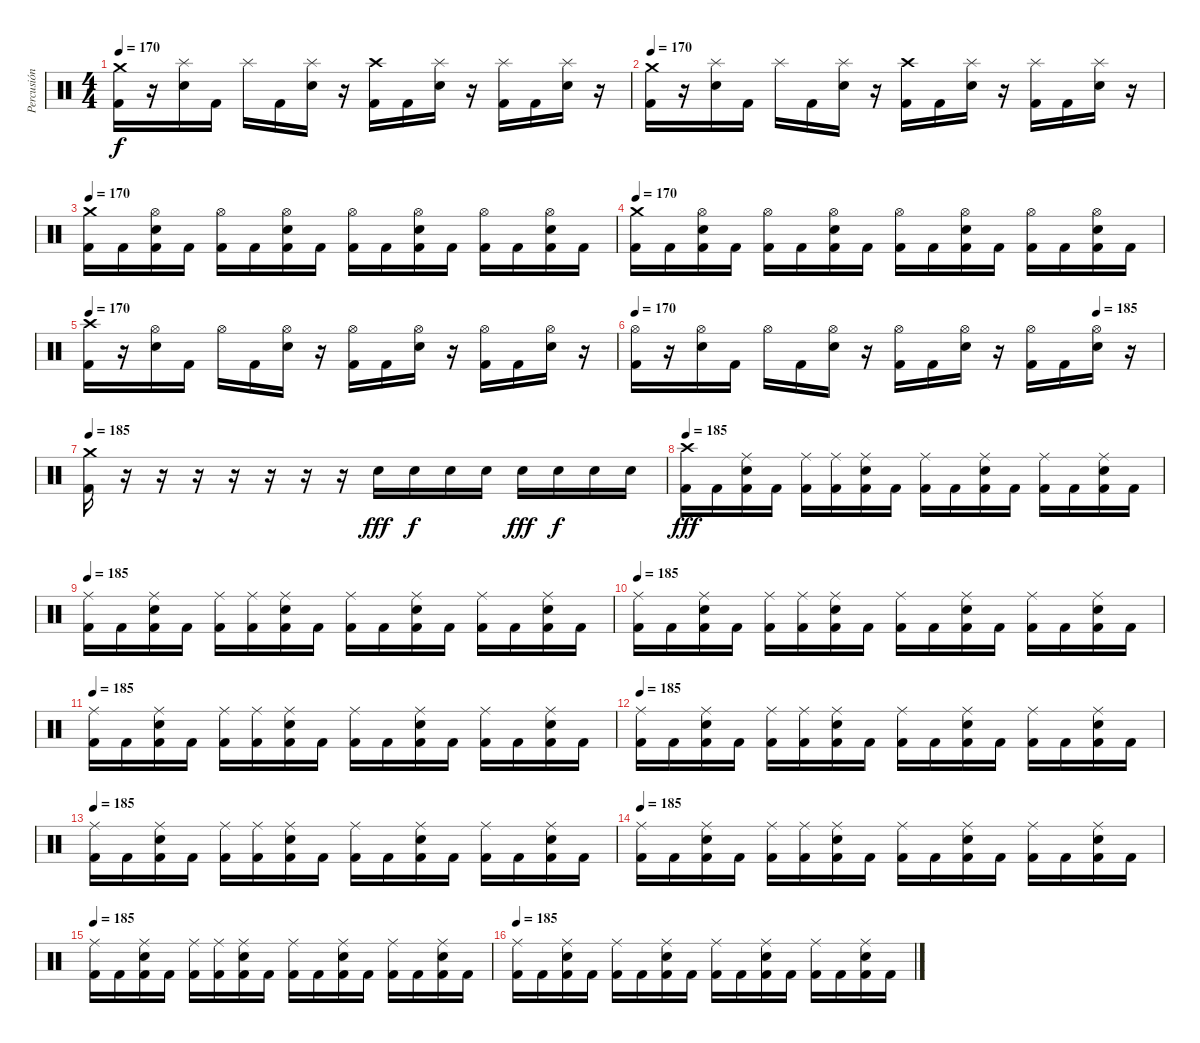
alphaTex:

\track ("Percusión" "Percusión") {instrument percussion}
\staff {score}
\articulation defaults
\ts (4 4)
\tempo 170
\clef neutral
\ks c
("Crash medium (hit)" "Kick (hit) 2").16{dy f} r.16 ("Splash (hit)" "Snare (hit) 2").16 "Kick (hit) 2".16 "Splash (hit)".16 "Kick (hit) 2".16 ("Splash (hit)" "Snare (hit) 2").16 r.16 ("Crash high (hit)" "Kick (hit) 2").16 "Kick (hit) 2".16 ("Splash (hit)" "Snare (hit) 2").16 r.16 ("Splash (hit)" "Kick (hit) 2").16 "Kick (hit) 2".16 ("Splash (hit)" "Snare (hit) 2").16 r.16 |
\tempo 170
("Crash medium (hit)" "Kick (hit) 2").16 r.16 ("Splash (hit)" "Snare (hit) 2").16 "Kick (hit) 2".16 "Splash (hit)".16 "Kick (hit) 2".16 ("Splash (hit)" "Snare (hit) 2").16 r.16 ("Crash high (hit)" "Kick (hit) 2").16 "Kick (hit) 2".16 ("Splash (hit)" "Snare (hit) 2").16 r.16 ("Splash (hit)" "Kick (hit) 2").16 "Kick (hit) 2".16 ("Splash (hit)" "Snare (hit) 2").16 r.16 |
\tempo 170
("Crash medium (hit)" "Kick (hit) 2").16 "Kick (hit) 2".16 ("Hi-Hat (open)" "Snare (hit) 2" "Kick (hit) 2").16 "Kick (hit) 2".16 ("Hi-Hat (open)" "Kick (hit) 2").16 "Kick (hit) 2".16 ("Hi-Hat (open)" "Snare (hit) 2" "Kick (hit) 2").16 "Kick (hit) 2".16 ("Hi-Hat (open)" "Kick (hit) 2").16 "Kick (hit) 2".16 ("Hi-Hat (open)" "Snare (hit) 2" "Kick (hit) 2").16 "Kick (hit) 2".16 ("Hi-Hat (open)" "Kick (hit) 2").16 "Kick (hit) 2".16 ("Hi-Hat (open)" "Snare (hit) 2" "Kick (hit) 2").16 "Kick (hit) 2".16 |
\tempo 170
("Crash medium (hit)" "Kick (hit) 2").16 "Kick (hit) 2".16 ("Hi-Hat (open)" "Snare (hit) 2" "Kick (hit) 2").16 "Kick (hit) 2".16 ("Hi-Hat (open)" "Kick (hit) 2").16 "Kick (hit) 2".16 ("Hi-Hat (open)" "Snare (hit) 2" "Kick (hit) 2").16 "Kick (hit) 2".16 ("Hi-Hat (open)" "Kick (hit) 2").16 "Kick (hit) 2".16 ("Hi-Hat (open)" "Snare (hit) 2" "Kick (hit) 2").16 "Kick (hit) 2".16 ("Hi-Hat (open)" "Kick (hit) 2").16 "Kick (hit) 2".16 ("Hi-Hat (open)" "Snare (hit) 2" "Kick (hit) 2").16 "Kick (hit) 2".16 |
\tempo 170
("Crash high (hit)" "Kick (hit) 2").16 r.16 ("Hi-Hat (open)" "Snare (hit) 2").16 "Kick (hit) 2".16 "Hi-Hat (open)".16 "Kick (hit) 2".16 ("Hi-Hat (open)" "Snare (hit) 2").16 r.16 ("Hi-Hat (open)" "Kick (hit) 2").16 "Kick (hit) 2".16 ("Hi-Hat (open)" "Snare (hit) 2").16 r.16 ("Hi-Hat (open)" "Kick (hit) 2").16 "Kick (hit) 2".16 ("Hi-Hat (open)" "Snare (hit) 2").16 r.16 |
\tempo 170
\tempo (185 0.875)
("Hi-Hat (open)" "Kick (hit) 2").16 r.16 ("Hi-Hat (open)" "Snare (hit) 2").16 "Kick (hit) 2".16 "Hi-Hat (open)".16 "Kick (hit) 2".16 ("Hi-Hat (open)" "Snare (hit) 2").16 r.16 ("Hi-Hat (open)" "Kick (hit) 2").16 "Kick (hit) 2".16 ("Hi-Hat (open)" "Snare (hit) 2").16 r.16 ("Hi-Hat (open)" "Kick (hit) 2").16 "Kick (hit) 2".16 ("Hi-Hat (open)" "Snare (hit) 2").16 r.16 |
\section ("" "")
\tempo 185
("Crash medium (hit)" "Kick (hit) 2").16 r.16 r.16 r.16 r.16 r.16 r.16 r.16 "Snare (hit) 2".16{dy fff} "Snare (hit) 2".16{dy f} "Snare (hit) 2".16 "Snare (hit) 2".16 "Snare (hit) 2".16{dy fff} "Snare (hit) 2".16{dy f} "Snare (hit) 2".16 "Snare (hit) 2".16 |
\section ("" "")
\tempo 185
("Crash high (hit)" "Kick (hit) 2").16{dy fff} "Kick (hit) 2".16 ("Ride (middle)" "Snare (hit) 2" "Kick (hit) 2").16 "Kick (hit) 2".16 ("Ride (middle)" "Kick (hit) 2").16 ("Ride (middle)" "Kick (hit) 2").16 ("Ride (middle)" "Snare (hit) 2" "Kick (hit) 2").16 "Kick (hit) 2".16 ("Ride (middle)" "Kick (hit) 2").16 "Kick (hit) 2".16 ("Ride (middle)" "Snare (hit) 2" "Kick (hit) 2").16 "Kick (hit) 2".16 ("Ride (middle)" "Kick (hit) 2").16 "Kick (hit) 2".16 ("Ride (middle)" "Snare (hit) 2" "Kick (hit) 2").16 "Kick (hit) 2".16 |
\tempo 185
("Ride (middle)" "Kick (hit) 2").16 "Kick (hit) 2".16 ("Ride (middle)" "Snare (hit) 2" "Kick (hit) 2").16 "Kick (hit) 2".16 ("Ride (middle)" "Kick (hit) 2").16 ("Ride (middle)" "Kick (hit) 2").16 ("Ride (middle)" "Snare (hit) 2" "Kick (hit) 2").16 "Kick (hit) 2".16 ("Ride (middle)" "Kick (hit) 2").16 "Kick (hit) 2".16 ("Ride (middle)" "Snare (hit) 2" "Kick (hit) 2").16 "Kick (hit) 2".16 ("Ride (middle)" "Kick (hit) 2").16 "Kick (hit) 2".16 ("Ride (middle)" "Snare (hit) 2" "Kick (hit) 2").16 "Kick (hit) 2".16 |
\tempo 185
("Ride (middle)" "Kick (hit) 2").16 "Kick (hit) 2".16 ("Ride (middle)" "Snare (hit) 2" "Kick (hit) 2").16 "Kick (hit) 2".16 ("Ride (middle)" "Kick (hit) 2").16 ("Ride (middle)" "Kick (hit) 2").16 ("Ride (middle)" "Snare (hit) 2" "Kick (hit) 2").16 "Kick (hit) 2".16 ("Ride (middle)" "Kick (hit) 2").16 "Kick (hit) 2".16 ("Ride (middle)" "Snare (hit) 2" "Kick (hit) 2").16 "Kick (hit) 2".16 ("Ride (middle)" "Kick (hit) 2").16 "Kick (hit) 2".16 ("Ride (middle)" "Snare (hit) 2" "Kick (hit) 2").16 "Kick (hit) 2".16 |
\tempo 185
("Ride (middle)" "Kick (hit) 2").16 "Kick (hit) 2".16 ("Ride (middle)" "Snare (hit) 2" "Kick (hit) 2").16 "Kick (hit) 2".16 ("Ride (middle)" "Kick (hit) 2").16 ("Ride (middle)" "Kick (hit) 2").16 ("Ride (middle)" "Snare (hit) 2" "Kick (hit) 2").16 "Kick (hit) 2".16 ("Ride (middle)" "Kick (hit) 2").16 "Kick (hit) 2".16 ("Ride (middle)" "Snare (hit) 2" "Kick (hit) 2").16 "Kick (hit) 2".16 ("Ride (middle)" "Kick (hit) 2").16 "Kick (hit) 2".16 ("Ride (middle)" "Snare (hit) 2" "Kick (hit) 2").16 "Kick (hit) 2".16 |
\tempo 185
("Ride (middle)" "Kick (hit) 2").16 "Kick (hit) 2".16 ("Ride (middle)" "Snare (hit) 2" "Kick (hit) 2").16 "Kick (hit) 2".16 ("Ride (middle)" "Kick (hit) 2").16 ("Ride (middle)" "Kick (hit) 2").16 ("Ride (middle)" "Snare (hit) 2" "Kick (hit) 2").16 "Kick (hit) 2".16 ("Ride (middle)" "Kick (hit) 2").16 "Kick (hit) 2".16 ("Ride (middle)" "Snare (hit) 2" "Kick (hit) 2").16 "Kick (hit) 2".16 ("Ride (middle)" "Kick (hit) 2").16 "Kick (hit) 2".16 ("Ride (middle)" "Snare (hit) 2" "Kick (hit) 2").16 "Kick (hit) 2".16 |
\tempo 185
("Ride (middle)" "Kick (hit) 2").16 "Kick (hit) 2".16 ("Ride (middle)" "Snare (hit) 2" "Kick (hit) 2").16 "Kick (hit) 2".16 ("Ride (middle)" "Kick (hit) 2").16 ("Ride (middle)" "Kick (hit) 2").16 ("Ride (middle)" "Snare (hit) 2" "Kick (hit) 2").16 "Kick (hit) 2".16 ("Ride (middle)" "Kick (hit) 2").16 "Kick (hit) 2".16 ("Ride (middle)" "Snare (hit) 2" "Kick (hit) 2").16 "Kick (hit) 2".16 ("Ride (middle)" "Kick (hit) 2").16 "Kick (hit) 2".16 ("Ride (middle)" "Snare (hit) 2" "Kick (hit) 2").16 "Kick (hit) 2".16 |
\tempo 185
("Ride (middle)" "Kick (hit) 2").16 "Kick (hit) 2".16 ("Ride (middle)" "Snare (hit) 2" "Kick (hit) 2").16 "Kick (hit) 2".16 ("Ride (middle)" "Kick (hit) 2").16 ("Ride (middle)" "Kick (hit) 2").16 ("Ride (middle)" "Snare (hit) 2" "Kick (hit) 2").16 "Kick (hit) 2".16 ("Ride (middle)" "Kick (hit) 2").16 "Kick (hit) 2".16 ("Ride (middle)" "Snare (hit) 2" "Kick (hit) 2").16 "Kick (hit) 2".16 ("Ride (middle)" "Kick (hit) 2").16 "Kick (hit) 2".16 ("Ride (middle)" "Snare (hit) 2" "Kick (hit) 2").16 "Kick (hit) 2".16 |
\tempo 185
("Ride (middle)" "Kick (hit) 2").16 "Kick (hit) 2".16 ("Ride (middle)" "Snare (hit) 2" "Kick (hit) 2").16 "Kick (hit) 2".16 ("Ride (middle)" "Kick (hit) 2").16 ("Ride (middle)" "Kick (hit) 2").16 ("Ride (middle)" "Snare (hit) 2" "Kick (hit) 2").16 "Kick (hit) 2".16 ("Ride (middle)" "Kick (hit) 2").16 "Kick (hit) 2".16 ("Ride (middle)" "Snare (hit) 2" "Kick (hit) 2").16 "Kick (hit) 2".16 ("Ride (middle)" "Kick (hit) 2").16 "Kick (hit) 2".16 ("Ride (middle)" "Snare (hit) 2" "Kick (hit) 2").16 "Kick (hit) 2".16 |
\section ("" "")
\tempo 185
("Ride (middle)" "Kick (hit) 2").16 "Kick (hit) 2".16 ("Ride (middle)" "Snare (hit) 2" "Kick (hit) 2").16 "Kick (hit) 2".16 ("Ride (middle)" "Kick (hit) 2").16 "Kick (hit) 2".16 ("Ride (middle)" "Snare (hit) 2" "Kick (hit) 2").16 "Kick (hit) 2".16 ("Ride (middle)" "Kick (hit) 2").16 "Kick (hit) 2".16 ("Ride (middle)" "Snare (hit) 2" "Kick (hit) 2").16 "Kick (hit) 2".16 ("Ride (middle)" "Kick (hit) 2").16 "Kick (hit) 2".16 ("Ride (middle)" "Snare (hit) 2" "Kick (hit) 2").16 "Kick (hit) 2".16
